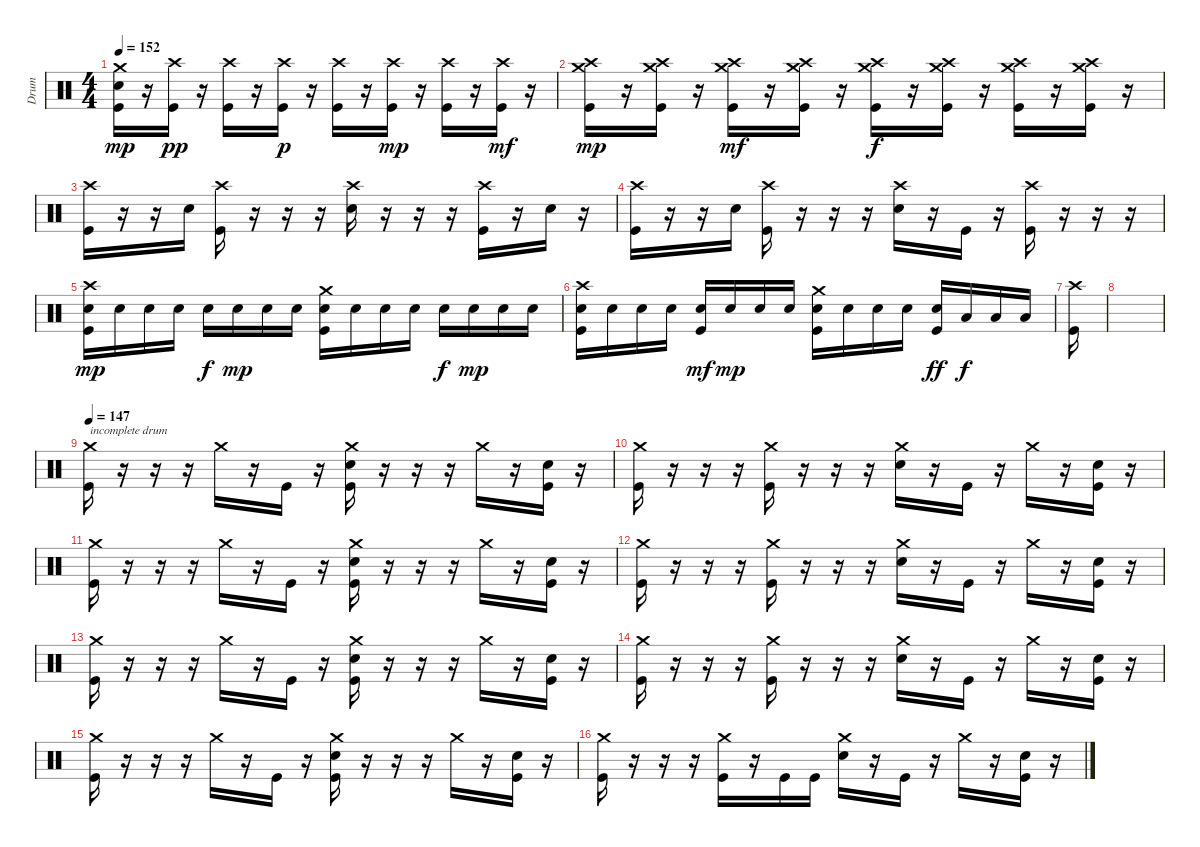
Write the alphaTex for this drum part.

\track ("Drum" "Drum") {instrument percussion}
\staff {score}
\articulation defaults
\ts (4 4)
\tempo 152
\clef neutral
\ks c
("Crash medium (hit)" "Electric Snare (hit)" "Kick (hit)").16{dy mp} r.16 ("Crash high (hit)" "Kick (hit)").16{dy pp} r.16 ("Crash high (hit)" "Kick (hit)").16 r.16 ("Crash high (hit)" "Kick (hit)").16{dy p} r.16 ("Crash high (hit)" "Kick (hit)").16 r.16 ("Crash high (hit)" "Kick (hit)").16{dy mp} r.16 ("Crash high (hit)" "Kick (hit)").16 r.16 ("Crash high (hit)" "Kick (hit)").16{dy mf} r.16 |
("Crash high (hit)" "Crash medium (hit)" "Kick (hit)").16{dy mp} r.16 ("Crash high (hit)" "Crash medium (hit)" "Kick (hit)").16 r.16 ("Crash high (hit)" "Crash medium (hit)" "Kick (hit)").16{dy mf} r.16 ("Crash high (hit)" "Crash medium (hit)" "Kick (hit)").16 r.16 ("Crash high (hit)" "Crash medium (hit)" "Kick (hit)").16{dy f} r.16 ("Crash high (hit)" "Crash medium (hit)" "Kick (hit)").16 r.16 ("Crash high (hit)" "Crash medium (hit)" "Kick (hit)").16 r.16 ("Crash high (hit)" "Crash medium (hit)" "Kick (hit)").16 r.16 |
("Crash high (hit)" "Kick (hit)").16 r.16 r.16 "Electric Snare (hit)".16 ("Crash high (hit)" "Kick (hit)").16 r.16 r.16 r.16 ("Crash high (hit)" "Electric Snare (hit)").16 r.16 r.16 r.16 ("Crash high (hit)" "Kick (hit)").16 r.16 "Electric Snare (hit)".16 r.16 |
("Crash high (hit)" "Kick (hit)").16 r.16 r.16 "Electric Snare (hit)".16 ("Crash high (hit)" "Kick (hit)").16 r.16 r.16 r.16 ("Crash high (hit)" "Electric Snare (hit)").16 r.16 "Kick (hit)".16 r.16 ("Crash high (hit)" "Kick (hit)").16 r.16 r.16 r.16 |
("Crash high (hit)" "Electric Snare (hit)" "Kick (hit)").16{dy mp} "Electric Snare (hit)".16 "Electric Snare (hit)".16 "Electric Snare (hit)".16 "Electric Snare (hit)".16{dy f} "Electric Snare (hit)".16{dy mp} "Electric Snare (hit)".16 "Electric Snare (hit)".16 ("Crash medium (hit)" "Electric Snare (hit)" "Kick (hit)").16 "Electric Snare (hit)".16 "Electric Snare (hit)".16 "Electric Snare (hit)".16 "Electric Snare (hit)".16{dy f} "Electric Snare (hit)".16{dy mp} "Electric Snare (hit)".16 "Electric Snare (hit)".16 |
("Crash high (hit)" "Electric Snare (hit)" "Kick (hit)").16 "Electric Snare (hit)".16 "Electric Snare (hit)".16 "Electric Snare (hit)".16 ("Electric Snare (hit)" "Kick (hit)").16{dy mf} "Electric Snare (hit)".16{dy mp} "Electric Snare (hit)".16 "Electric Snare (hit)".16 ("Crash medium (hit)" "Electric Snare (hit)" "Kick (hit)").16 "Electric Snare (hit)".16 "Electric Snare (hit)".16 "Electric Snare (hit)".16 ("Electric Snare (hit)" "Kick (hit)").16{dy ff} "Low Tom (hit)".16{dy f} "Low Tom (hit)".16 "Low Tom (hit)".16 |
("Crash high (hit)" "Kick (hit)").16 |
|
\tempo 147
("Crash medium (hit)" "Kick (hit)").16{txt "incomplete drum"} r.16 r.16 r.16 "Crash medium (hit)".16 r.16 "Kick (hit)".16 r.16 ("Crash medium (hit)" "Electric Snare (hit)" "Kick (hit)").16 r.16 r.16 r.16 "Crash medium (hit)".16 r.16 ("Electric Snare (hit)" "Kick (hit)").16 r.16 |
("Crash medium (hit)" "Kick (hit)").16 r.16 r.16 r.16 ("Crash medium (hit)" "Kick (hit)").16 r.16 r.16 r.16 ("Crash medium (hit)" "Electric Snare (hit)").16 r.16 "Kick (hit)".16 r.16 "Crash medium (hit)".16 r.16 ("Electric Snare (hit)" "Kick (hit)").16 r.16 |
("Crash medium (hit)" "Kick (hit)").16 r.16 r.16 r.16 "Crash medium (hit)".16 r.16 "Kick (hit)".16 r.16 ("Crash medium (hit)" "Electric Snare (hit)" "Kick (hit)").16 r.16 r.16 r.16 "Crash medium (hit)".16 r.16 ("Electric Snare (hit)" "Kick (hit)").16 r.16 |
("Crash medium (hit)" "Kick (hit)").16 r.16 r.16 r.16 ("Crash medium (hit)" "Kick (hit)").16 r.16 r.16 r.16 ("Crash medium (hit)" "Electric Snare (hit)").16 r.16 "Kick (hit)".16 r.16 "Crash medium (hit)".16 r.16 ("Electric Snare (hit)" "Kick (hit)").16 r.16 |
("Crash medium (hit)" "Kick (hit)").16 r.16 r.16 r.16 "Crash medium (hit)".16 r.16 "Kick (hit)".16 r.16 ("Crash medium (hit)" "Electric Snare (hit)" "Kick (hit)").16 r.16 r.16 r.16 "Crash medium (hit)".16 r.16 ("Electric Snare (hit)" "Kick (hit)").16 r.16 |
("Crash medium (hit)" "Kick (hit)").16 r.16 r.16 r.16 ("Crash medium (hit)" "Kick (hit)").16 r.16 r.16 r.16 ("Crash medium (hit)" "Electric Snare (hit)").16 r.16 "Kick (hit)".16 r.16 "Crash medium (hit)".16 r.16 ("Electric Snare (hit)" "Kick (hit)").16 r.16 |
("Crash medium (hit)" "Kick (hit)").16 r.16 r.16 r.16 "Crash medium (hit)".16 r.16 "Kick (hit)".16 r.16 ("Crash medium (hit)" "Electric Snare (hit)" "Kick (hit)").16 r.16 r.16 r.16 "Crash medium (hit)".16 r.16 ("Electric Snare (hit)" "Kick (hit)").16 r.16 |
("Crash medium (hit)" "Kick (hit)").16 r.16 r.16 r.16 ("Crash medium (hit)" "Kick (hit)").16 r.16 "Kick (hit)".16 "Kick (hit)".16 ("Crash medium (hit)" "Electric Snare (hit)").16 r.16 "Kick (hit)".16 r.16 "Crash medium (hit)".16 r.16 ("Electric Snare (hit)" "Kick (hit)").16 r.16
